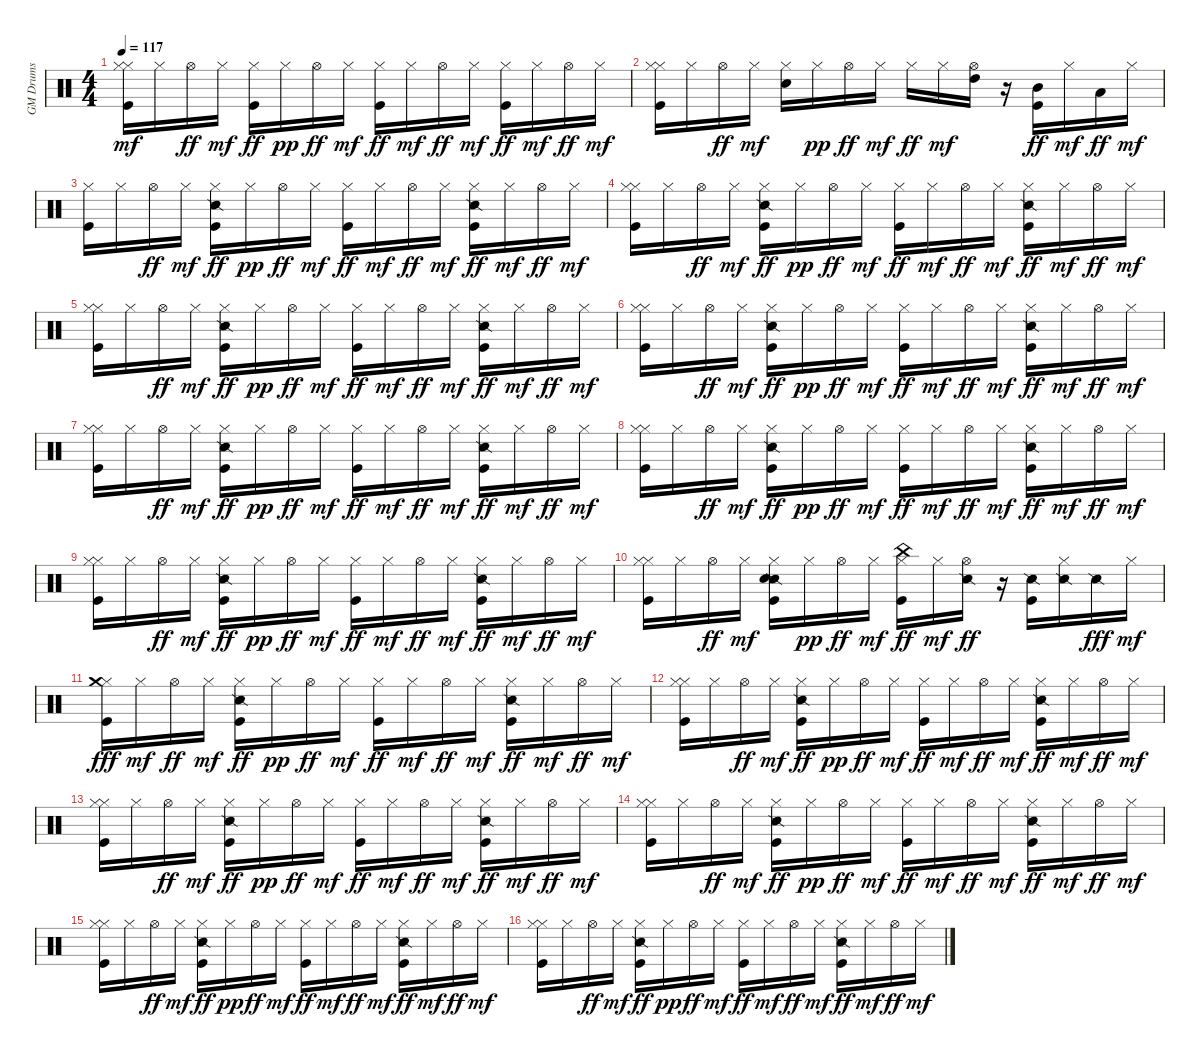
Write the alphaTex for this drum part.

\track ("GM Drums" "GM Drums") {instrument percussion}
\staff {score}
\articulation defaults
\ts (4 4)
\tempo 117
\clef neutral
\ks c
("Hi-Hat (closed)" "Kick (hit)" "Hi-Hat (closed)").16{dy mf} "Hi-Hat (closed)".16 "Hi-Hat (open)".16{dy ff} "Hi-Hat (closed)".16{dy mf} ("Kick (hit)" "Hi-Hat (closed)").16{dy ff} "Hi-Hat (closed)".16{dy pp} "Hi-Hat (open)".16{dy ff} "Hi-Hat (closed)".16{dy mf} ("Kick (hit)" "Hi-Hat (closed)").16{dy ff} "Hi-Hat (closed)".16{dy mf} "Hi-Hat (open)".16{dy ff} "Hi-Hat (closed)".16{dy mf} ("Kick (hit)" "Hi-Hat (closed)").16{dy ff} "Hi-Hat (closed)".16{dy mf} "Hi-Hat (open)".16{dy ff} "Hi-Hat (closed)".16{dy mf} |
("Hi-Hat (closed)" "Kick (hit)" "Hi-Hat (closed)").16 "Hi-Hat (closed)".16 "Hi-Hat (open)".16{dy ff} "Hi-Hat (closed)".16{dy mf} ("Hi-Hat (closed)" "Electric Snare (hit)").16 "Hi-Hat (closed)".16{dy pp} "Hi-Hat (open)".16{dy ff} "Hi-Hat (closed)".16{dy mf} "Hi-Hat (closed)".16{dy ff} "Hi-Hat (closed)".16{dy mf} ("Hi-Hat (open)" "High Tom (hit)").16 r.16 ("Kick (hit)" "Mid Tom (hit)").16{dy ff} "Hi-Hat (closed)".16{dy mf} "Low Tom (hit)".16{dy ff} "Hi-Hat (closed)".16{dy mf} |
("Kick (hit)" "Hi-Hat (closed)").16 "Hi-Hat (closed)".16 "Hi-Hat (open)".16{dy ff} "Hi-Hat (closed)".16{dy mf} ("Kick (hit)" "Hi-Hat (closed)" "Snare (side stick) 2").16{dy ff} "Hi-Hat (closed)".16{dy pp} "Hi-Hat (open)".16{dy ff} "Hi-Hat (closed)".16{dy mf} ("Kick (hit)" "Hi-Hat (closed)").16{dy ff} "Hi-Hat (closed)".16{dy mf} "Hi-Hat (open)".16{dy ff} "Hi-Hat (closed)".16{dy mf} ("Kick (hit)" "Hi-Hat (closed)" "Snare (side stick) 2").16{dy ff} "Hi-Hat (closed)".16{dy mf} "Hi-Hat (open)".16{dy ff} "Hi-Hat (closed)".16{dy mf} |
("Hi-Hat (closed)" "Kick (hit)" "Hi-Hat (closed)").16 "Hi-Hat (closed)".16 "Hi-Hat (open)".16{dy ff} "Hi-Hat (closed)".16{dy mf} ("Kick (hit)" "Hi-Hat (closed)" "Snare (side stick) 2").16{dy ff} "Hi-Hat (closed)".16{dy pp} "Hi-Hat (open)".16{dy ff} "Hi-Hat (closed)".16{dy mf} ("Kick (hit)" "Hi-Hat (closed)").16{dy ff} "Hi-Hat (closed)".16{dy mf} "Hi-Hat (open)".16{dy ff} "Hi-Hat (closed)".16{dy mf} ("Kick (hit)" "Hi-Hat (closed)" "Snare (side stick) 2").16{dy ff} "Hi-Hat (closed)".16{dy mf} "Hi-Hat (open)".16{dy ff} "Hi-Hat (closed)".16{dy mf} |
("Hi-Hat (closed)" "Kick (hit)" "Hi-Hat (closed)").16 "Hi-Hat (closed)".16 "Hi-Hat (open)".16{dy ff} "Hi-Hat (closed)".16{dy mf} ("Kick (hit)" "Hi-Hat (closed)" "Snare (side stick) 2").16{dy ff} "Hi-Hat (closed)".16{dy pp} "Hi-Hat (open)".16{dy ff} "Hi-Hat (closed)".16{dy mf} ("Kick (hit)" "Hi-Hat (closed)").16{dy ff} "Hi-Hat (closed)".16{dy mf} "Hi-Hat (open)".16{dy ff} "Hi-Hat (closed)".16{dy mf} ("Kick (hit)" "Hi-Hat (closed)" "Snare (side stick) 2").16{dy ff} "Hi-Hat (closed)".16{dy mf} "Hi-Hat (open)".16{dy ff} "Hi-Hat (closed)".16{dy mf} |
("Hi-Hat (closed)" "Kick (hit)" "Hi-Hat (closed)").16 "Hi-Hat (closed)".16 "Hi-Hat (open)".16{dy ff} "Hi-Hat (closed)".16{dy mf} ("Kick (hit)" "Hi-Hat (closed)" "Snare (side stick) 2").16{dy ff} "Hi-Hat (closed)".16{dy pp} "Hi-Hat (open)".16{dy ff} "Hi-Hat (closed)".16{dy mf} ("Kick (hit)" "Hi-Hat (closed)").16{dy ff} "Hi-Hat (closed)".16{dy mf} "Hi-Hat (open)".16{dy ff} "Hi-Hat (closed)".16{dy mf} ("Kick (hit)" "Hi-Hat (closed)" "Snare (side stick) 2").16{dy ff} "Hi-Hat (closed)".16{dy mf} "Hi-Hat (open)".16{dy ff} "Hi-Hat (closed)".16{dy mf} |
("Hi-Hat (closed)" "Kick (hit)" "Hi-Hat (closed)").16 "Hi-Hat (closed)".16 "Hi-Hat (open)".16{dy ff} "Hi-Hat (closed)".16{dy mf} ("Kick (hit)" "Hi-Hat (closed)" "Snare (side stick) 2").16{dy ff} "Hi-Hat (closed)".16{dy pp} "Hi-Hat (open)".16{dy ff} "Hi-Hat (closed)".16{dy mf} ("Kick (hit)" "Hi-Hat (closed)").16{dy ff} "Hi-Hat (closed)".16{dy mf} "Hi-Hat (open)".16{dy ff} "Hi-Hat (closed)".16{dy mf} ("Kick (hit)" "Hi-Hat (closed)" "Snare (side stick) 2").16{dy ff} "Hi-Hat (closed)".16{dy mf} "Hi-Hat (open)".16{dy ff} "Hi-Hat (closed)".16{dy mf} |
("Hi-Hat (closed)" "Kick (hit)" "Hi-Hat (closed)").16 "Hi-Hat (closed)".16 "Hi-Hat (open)".16{dy ff} "Hi-Hat (closed)".16{dy mf} ("Kick (hit)" "Hi-Hat (closed)" "Snare (side stick) 2").16{dy ff} "Hi-Hat (closed)".16{dy pp} "Hi-Hat (open)".16{dy ff} "Hi-Hat (closed)".16{dy mf} ("Kick (hit)" "Hi-Hat (closed)").16{dy ff} "Hi-Hat (closed)".16{dy mf} "Hi-Hat (open)".16{dy ff} "Hi-Hat (closed)".16{dy mf} ("Kick (hit)" "Hi-Hat (closed)" "Snare (side stick) 2").16{dy ff} "Hi-Hat (closed)".16{dy mf} "Hi-Hat (open)".16{dy ff} "Hi-Hat (closed)".16{dy mf} |
("Hi-Hat (closed)" "Kick (hit)" "Hi-Hat (closed)").16 "Hi-Hat (closed)".16 "Hi-Hat (open)".16{dy ff} "Hi-Hat (closed)".16{dy mf} ("Kick (hit)" "Hi-Hat (closed)" "Snare (side stick) 2").16{dy ff} "Hi-Hat (closed)".16{dy pp} "Hi-Hat (open)".16{dy ff} "Hi-Hat (closed)".16{dy mf} ("Kick (hit)" "Hi-Hat (closed)").16{dy ff} "Hi-Hat (closed)".16{dy mf} "Hi-Hat (open)".16{dy ff} "Hi-Hat (closed)".16{dy mf} ("Kick (hit)" "Hi-Hat (closed)" "Snare (side stick) 2").16{dy ff} "Hi-Hat (closed)".16{dy mf} "Hi-Hat (open)".16{dy ff} "Hi-Hat (closed)".16{dy mf} |
("Hi-Hat (closed)" "Kick (hit)" "Hi-Hat (closed)").16 "Hi-Hat (closed)".16 "Hi-Hat (open)".16{dy ff} "Hi-Hat (closed)".16{dy mf} ("Hi-Hat (closed)" "Snare (side stick) 2" "Kick (hit)" "Electric Snare (hit)").16 "Hi-Hat (closed)".16{dy pp} "Hi-Hat (open)".16{dy ff} "Hi-Hat (closed)".16{dy mf} ("Hi-Hat (closed)" "Kick (hit)" "China (hit)").16{dy ff} "Hi-Hat (closed)".16{dy mf} ("Snare (side stick) 2" "Hi-Hat (open)").16{dy ff} r.16 ("Kick (hit)" "Snare (side stick) 2").16 ("Hi-Hat (closed)" "Snare (side stick) 2").16 "Snare (side stick) 2".16{dy fff} "Hi-Hat (closed)".16{dy mf} |
("Kick (hit)" "Hi-Hat (closed)" "Crash medium (hit)").16{dy fff} "Hi-Hat (closed)".16{dy mf} "Hi-Hat (open)".16{dy ff} "Hi-Hat (closed)".16{dy mf} ("Kick (hit)" "Hi-Hat (closed)" "Snare (side stick) 2").16{dy ff} "Hi-Hat (closed)".16{dy pp} "Hi-Hat (open)".16{dy ff} "Hi-Hat (closed)".16{dy mf} ("Kick (hit)" "Hi-Hat (closed)").16{dy ff} "Hi-Hat (closed)".16{dy mf} "Hi-Hat (open)".16{dy ff} "Hi-Hat (closed)".16{dy mf} ("Kick (hit)" "Hi-Hat (closed)" "Snare (side stick) 2").16{dy ff} "Hi-Hat (closed)".16{dy mf} "Hi-Hat (open)".16{dy ff} "Hi-Hat (closed)".16{dy mf} |
("Hi-Hat (closed)" "Kick (hit)" "Hi-Hat (closed)").16 "Hi-Hat (closed)".16 "Hi-Hat (open)".16{dy ff} "Hi-Hat (closed)".16{dy mf} ("Kick (hit)" "Hi-Hat (closed)" "Snare (side stick) 2").16{dy ff} "Hi-Hat (closed)".16{dy pp} "Hi-Hat (open)".16{dy ff} "Hi-Hat (closed)".16{dy mf} ("Kick (hit)" "Hi-Hat (closed)").16{dy ff} "Hi-Hat (closed)".16{dy mf} "Hi-Hat (open)".16{dy ff} "Hi-Hat (closed)".16{dy mf} ("Kick (hit)" "Hi-Hat (closed)" "Snare (side stick) 2").16{dy ff} "Hi-Hat (closed)".16{dy mf} "Hi-Hat (open)".16{dy ff} "Hi-Hat (closed)".16{dy mf} |
("Hi-Hat (closed)" "Kick (hit)" "Hi-Hat (closed)").16 "Hi-Hat (closed)".16 "Hi-Hat (open)".16{dy ff} "Hi-Hat (closed)".16{dy mf} ("Kick (hit)" "Hi-Hat (closed)" "Snare (side stick) 2").16{dy ff} "Hi-Hat (closed)".16{dy pp} "Hi-Hat (open)".16{dy ff} "Hi-Hat (closed)".16{dy mf} ("Kick (hit)" "Hi-Hat (closed)").16{dy ff} "Hi-Hat (closed)".16{dy mf} "Hi-Hat (open)".16{dy ff} "Hi-Hat (closed)".16{dy mf} ("Kick (hit)" "Hi-Hat (closed)" "Snare (side stick) 2").16{dy ff} "Hi-Hat (closed)".16{dy mf} "Hi-Hat (open)".16{dy ff} "Hi-Hat (closed)".16{dy mf} |
("Hi-Hat (closed)" "Kick (hit)" "Hi-Hat (closed)").16 "Hi-Hat (closed)".16 "Hi-Hat (open)".16{dy ff} "Hi-Hat (closed)".16{dy mf} ("Kick (hit)" "Hi-Hat (closed)" "Snare (side stick) 2").16{dy ff} "Hi-Hat (closed)".16{dy pp} "Hi-Hat (open)".16{dy ff} "Hi-Hat (closed)".16{dy mf} ("Kick (hit)" "Hi-Hat (closed)").16{dy ff} "Hi-Hat (closed)".16{dy mf} "Hi-Hat (open)".16{dy ff} "Hi-Hat (closed)".16{dy mf} ("Kick (hit)" "Hi-Hat (closed)" "Snare (side stick) 2").16{dy ff} "Hi-Hat (closed)".16{dy mf} "Hi-Hat (open)".16{dy ff} "Hi-Hat (closed)".16{dy mf} |
("Hi-Hat (closed)" "Kick (hit)" "Hi-Hat (closed)").16 "Hi-Hat (closed)".16 "Hi-Hat (open)".16{dy ff} "Hi-Hat (closed)".16{dy mf} ("Kick (hit)" "Hi-Hat (closed)" "Snare (side stick) 2").16{dy ff} "Hi-Hat (closed)".16{dy pp} "Hi-Hat (open)".16{dy ff} "Hi-Hat (closed)".16{dy mf} ("Kick (hit)" "Hi-Hat (closed)").16{dy ff} "Hi-Hat (closed)".16{dy mf} "Hi-Hat (open)".16{dy ff} "Hi-Hat (closed)".16{dy mf} ("Kick (hit)" "Hi-Hat (closed)" "Snare (side stick) 2").16{dy ff} "Hi-Hat (closed)".16{dy mf} "Hi-Hat (open)".16{dy ff} "Hi-Hat (closed)".16{dy mf} |
("Hi-Hat (closed)" "Kick (hit)" "Hi-Hat (closed)").16 "Hi-Hat (closed)".16 "Hi-Hat (open)".16{dy ff} "Hi-Hat (closed)".16{dy mf} ("Kick (hit)" "Hi-Hat (closed)" "Snare (side stick) 2").16{dy ff} "Hi-Hat (closed)".16{dy pp} "Hi-Hat (open)".16{dy ff} "Hi-Hat (closed)".16{dy mf} ("Kick (hit)" "Hi-Hat (closed)").16{dy ff} "Hi-Hat (closed)".16{dy mf} "Hi-Hat (open)".16{dy ff} "Hi-Hat (closed)".16{dy mf} ("Kick (hit)" "Hi-Hat (closed)" "Snare (side stick) 2").16{dy ff} "Hi-Hat (closed)".16{dy mf} "Hi-Hat (open)".16{dy ff} "Hi-Hat (closed)".16{dy mf}
